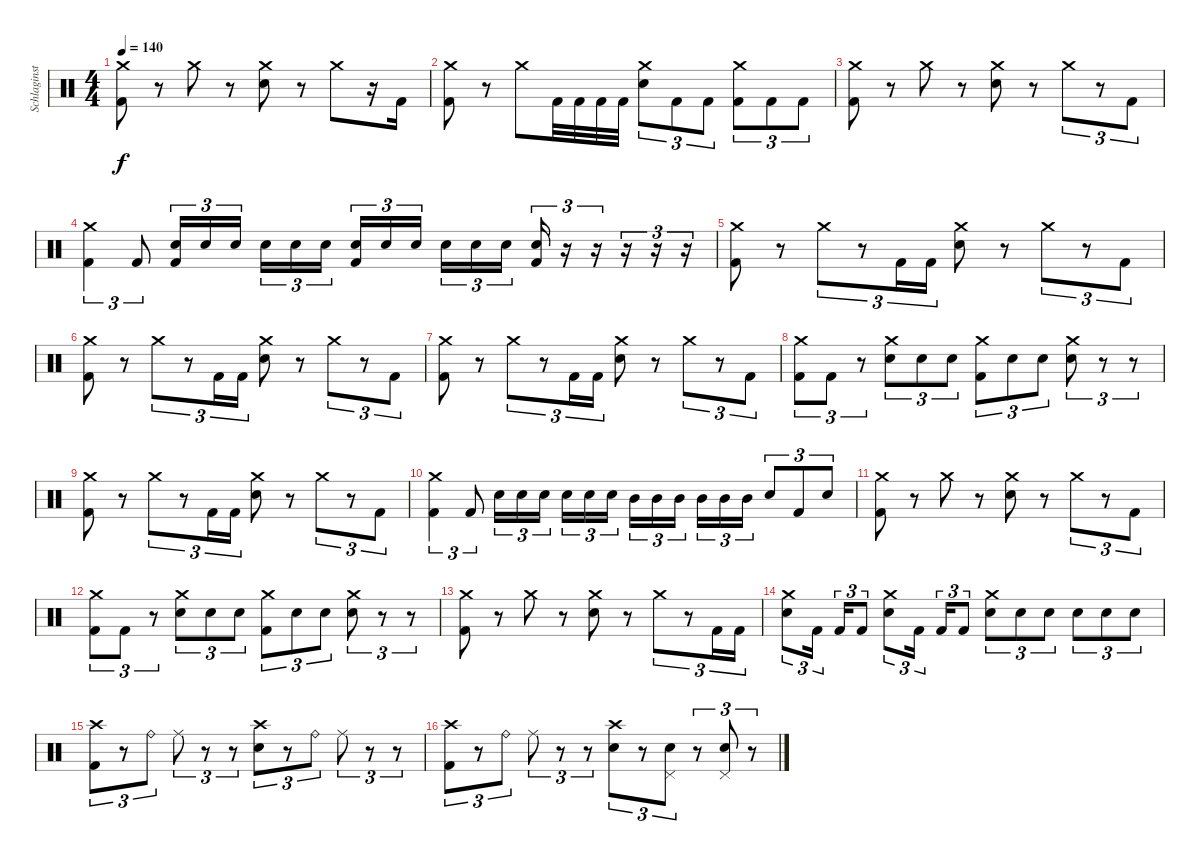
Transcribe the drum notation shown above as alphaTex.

\track ("Schlaginstrumente - Auswahl" "Schlaginst") {instrument percussion}
\staff {score}
\articulation defaults
\ts (4 4)
\tempo 140
\clef neutral
\ks c
("Crash medium (hit)" "Kick (hit) 2").8{dy f} r.8 "Crash medium (hit)".8 r.8 ("Crash medium (hit)" "Electric Snare (hit)").8 r.8 "Crash medium (hit)".8 r.16 "Kick (hit) 2".16 |
("Crash medium (hit)" "Kick (hit) 2").8 r.8 "Crash medium (hit)".8 "Kick (hit) 2".32 "Kick (hit) 2".32 "Kick (hit) 2".32 "Kick (hit) 2".32 ("Crash medium (hit)" "Electric Snare (hit)").8{tu (3 2)} "Kick (hit) 2".8{tu (3 2)} "Kick (hit) 2".8{tu (3 2)} ("Crash medium (hit)" "Kick (hit) 2").8{tu (3 2)} "Kick (hit) 2".8{tu (3 2)} "Kick (hit) 2".8{tu (3 2)} |
("Crash medium (hit)" "Kick (hit) 2").8 r.8 "Crash medium (hit)".8 r.8 ("Crash medium (hit)" "Electric Snare (hit)").8 r.8 "Crash medium (hit)".8{tu (3 2)} r.8{tu (3 2)} "Kick (hit) 2".8{tu (3 2)} |
("Crash medium (hit)" "Kick (hit) 2").4{tu (3 2)} "Kick (hit) 2".8{tu (3 2)} ("Electric Snare (hit)" "Kick (hit) 2").16{tu (3 2)} "Electric Snare (hit)".16{tu (3 2)} "Electric Snare (hit)".16{tu (3 2) beam splitsecondary} "Electric Snare (hit)".16{tu (3 2)} "Electric Snare (hit)".16{tu (3 2)} "Electric Snare (hit)".16{tu (3 2)} ("Electric Snare (hit)" "Kick (hit) 2").16{tu (3 2)} "Electric Snare (hit)".16{tu (3 2)} "Electric Snare (hit)".16{tu (3 2) beam splitsecondary} "Electric Snare (hit)".16{tu (3 2)} "Electric Snare (hit)".16{tu (3 2)} "Electric Snare (hit)".16{tu (3 2)} ("Electric Snare (hit)" "Kick (hit) 2").16{tu (3 2)} r.16{tu (3 2)} r.16{tu (3 2)} r.16{tu (3 2)} r.16{tu (3 2)} r.16{tu (3 2)} |
("Crash medium (hit)" "Kick (hit) 2").8 r.8 "Crash medium (hit)".8{tu (3 2)} r.8{tu (3 2)} "Kick (hit) 2".16{tu (3 2)} "Kick (hit) 2".16{tu (3 2)} ("Crash medium (hit)" "Electric Snare (hit)").8 r.8 "Crash medium (hit)".8{tu (3 2)} r.8{tu (3 2)} "Kick (hit) 2".8{tu (3 2)} |
("Crash medium (hit)" "Kick (hit) 2").8 r.8 "Crash medium (hit)".8{tu (3 2)} r.8{tu (3 2)} "Kick (hit) 2".16{tu (3 2)} "Kick (hit) 2".16{tu (3 2)} ("Crash medium (hit)" "Electric Snare (hit)").8 r.8 "Crash medium (hit)".8{tu (3 2)} r.8{tu (3 2)} "Kick (hit) 2".8{tu (3 2)} |
("Crash medium (hit)" "Kick (hit) 2").8 r.8 "Crash medium (hit)".8{tu (3 2)} r.8{tu (3 2)} "Kick (hit) 2".16{tu (3 2)} "Kick (hit) 2".16{tu (3 2)} ("Crash medium (hit)" "Electric Snare (hit)").8 r.8 "Crash medium (hit)".8{tu (3 2)} r.8{tu (3 2)} "Kick (hit) 2".8{tu (3 2)} |
("Crash medium (hit)" "Kick (hit) 2").8{tu (3 2)} "Kick (hit) 2".8{tu (3 2)} r.8{tu (3 2)} ("Crash medium (hit)" "Electric Snare (hit)").8{tu (3 2)} "Electric Snare (hit)".8{tu (3 2)} "Electric Snare (hit)".8{tu (3 2)} ("Crash medium (hit)" "Kick (hit) 2").8{tu (3 2)} "Electric Snare (hit)".8{tu (3 2)} "Electric Snare (hit)".8{tu (3 2)} ("Crash medium (hit)" "Electric Snare (hit)").8{tu (3 2)} r.8{tu (3 2)} r.8{tu (3 2)} |
("Crash medium (hit)" "Kick (hit) 2").8 r.8 "Crash medium (hit)".8{tu (3 2)} r.8{tu (3 2)} "Kick (hit) 2".16{tu (3 2)} "Kick (hit) 2".16{tu (3 2)} ("Crash medium (hit)" "Electric Snare (hit)").8 r.8 "Crash medium (hit)".8{tu (3 2)} r.8{tu (3 2)} "Kick (hit) 2".8{tu (3 2)} |
("Crash medium (hit)" "Kick (hit) 2").4{tu (3 2)} "Kick (hit) 2".8{tu (3 2)} "Electric Snare (hit)".16{tu (3 2)} "Electric Snare (hit)".16{tu (3 2)} "Electric Snare (hit)".16{tu (3 2) beam splitsecondary} "Electric Snare (hit)".16{tu (3 2)} "Electric Snare (hit)".16{tu (3 2)} "Electric Snare (hit)".16{tu (3 2)} "Mid Tom (hit)".16{tu (3 2)} "Mid Tom (hit)".16{tu (3 2)} "Mid Tom (hit)".16{tu (3 2) beam splitsecondary} "Mid Tom (hit)".16{tu (3 2)} "Mid Tom (hit)".16{tu (3 2)} "Mid Tom (hit)".16{tu (3 2)} "Electric Snare (hit)".8{tu (3 2)} "Kick (hit) 2".8{tu (3 2)} "Electric Snare (hit)".8{tu (3 2)} |
("Crash medium (hit)" "Kick (hit) 2").8 r.8 "Crash medium (hit)".8 r.8 ("Crash medium (hit)" "Electric Snare (hit)").8 r.8 "Crash medium (hit)".8{tu (3 2)} r.8{tu (3 2)} "Kick (hit) 2".8{tu (3 2)} |
("Crash medium (hit)" "Kick (hit) 2").8{tu (3 2)} "Kick (hit) 2".8{tu (3 2)} r.8{tu (3 2)} ("Crash medium (hit)" "Electric Snare (hit)").8{tu (3 2)} "Electric Snare (hit)".8{tu (3 2)} "Electric Snare (hit)".8{tu (3 2)} ("Crash medium (hit)" "Kick (hit) 2").8{tu (3 2)} "Electric Snare (hit)".8{tu (3 2)} "Electric Snare (hit)".8{tu (3 2)} ("Crash medium (hit)" "Electric Snare (hit)").8{tu (3 2)} r.8{tu (3 2)} r.8{tu (3 2)} |
("Crash medium (hit)" "Kick (hit) 2").8 r.8 "Crash medium (hit)".8 r.8 ("Crash medium (hit)" "Electric Snare (hit)").8 r.8 "Crash medium (hit)".8{tu (3 2)} r.8{tu (3 2)} "Kick (hit) 2".16{tu (3 2)} "Kick (hit) 2".16{tu (3 2)} |
("Electric Snare (hit)" "Crash medium (hit)").8{tu (3 2)} "Kick (hit) 2".16{tu (3 2) beam splitsecondary} "Kick (hit) 2".16{tu (3 2)} "Kick (hit) 2".8{tu (3 2)} ("Electric Snare (hit)" "Crash medium (hit)").8{tu (3 2)} "Kick (hit) 2".16{tu (3 2) beam splitsecondary} "Kick (hit) 2".16{tu (3 2)} "Kick (hit) 2".8{tu (3 2)} ("Electric Snare (hit)" "Crash medium (hit)").8{tu (3 2)} "Electric Snare (hit)".8{tu (3 2)} "Electric Snare (hit)".8{tu (3 2)} "Electric Snare (hit)".8{tu (3 2)} "Electric Snare (hit)".8{tu (3 2)} "Electric Snare (hit)".8{tu (3 2)} |
("Crash high (hit)" "Kick (hit) 2").8{tu (3 2)} r.8{tu (3 2)} "Ride (bell)".8{tu (3 2)} "Ride (middle)".8{tu (3 2)} r.8{tu (3 2)} r.8{tu (3 2)} ("Crash high (hit)" "Electric Snare (hit)").8{tu (3 2)} r.8{tu (3 2)} "Ride (bell)".8{tu (3 2)} "Ride (middle)".8{tu (3 2)} r.8{tu (3 2)} r.8{tu (3 2)} |
("Crash high (hit)" "Kick (hit) 2").8{tu (3 2)} r.8{tu (3 2)} "Ride (bell)".8{tu (3 2)} "Ride (middle)".8{tu (3 2)} r.8{tu (3 2)} r.8{tu (3 2)} ("Crash high (hit)" "Electric Snare (hit)").8{tu (3 2)} r.8{tu (3 2)} ("Pedal Hi-Hat (hit)" "Electric Snare (hit)").8{tu (3 2)} r.8{tu (3 2)} ("Pedal Hi-Hat (hit)" "Electric Snare (hit)").8{tu (3 2)} r.8{tu (3 2)}
